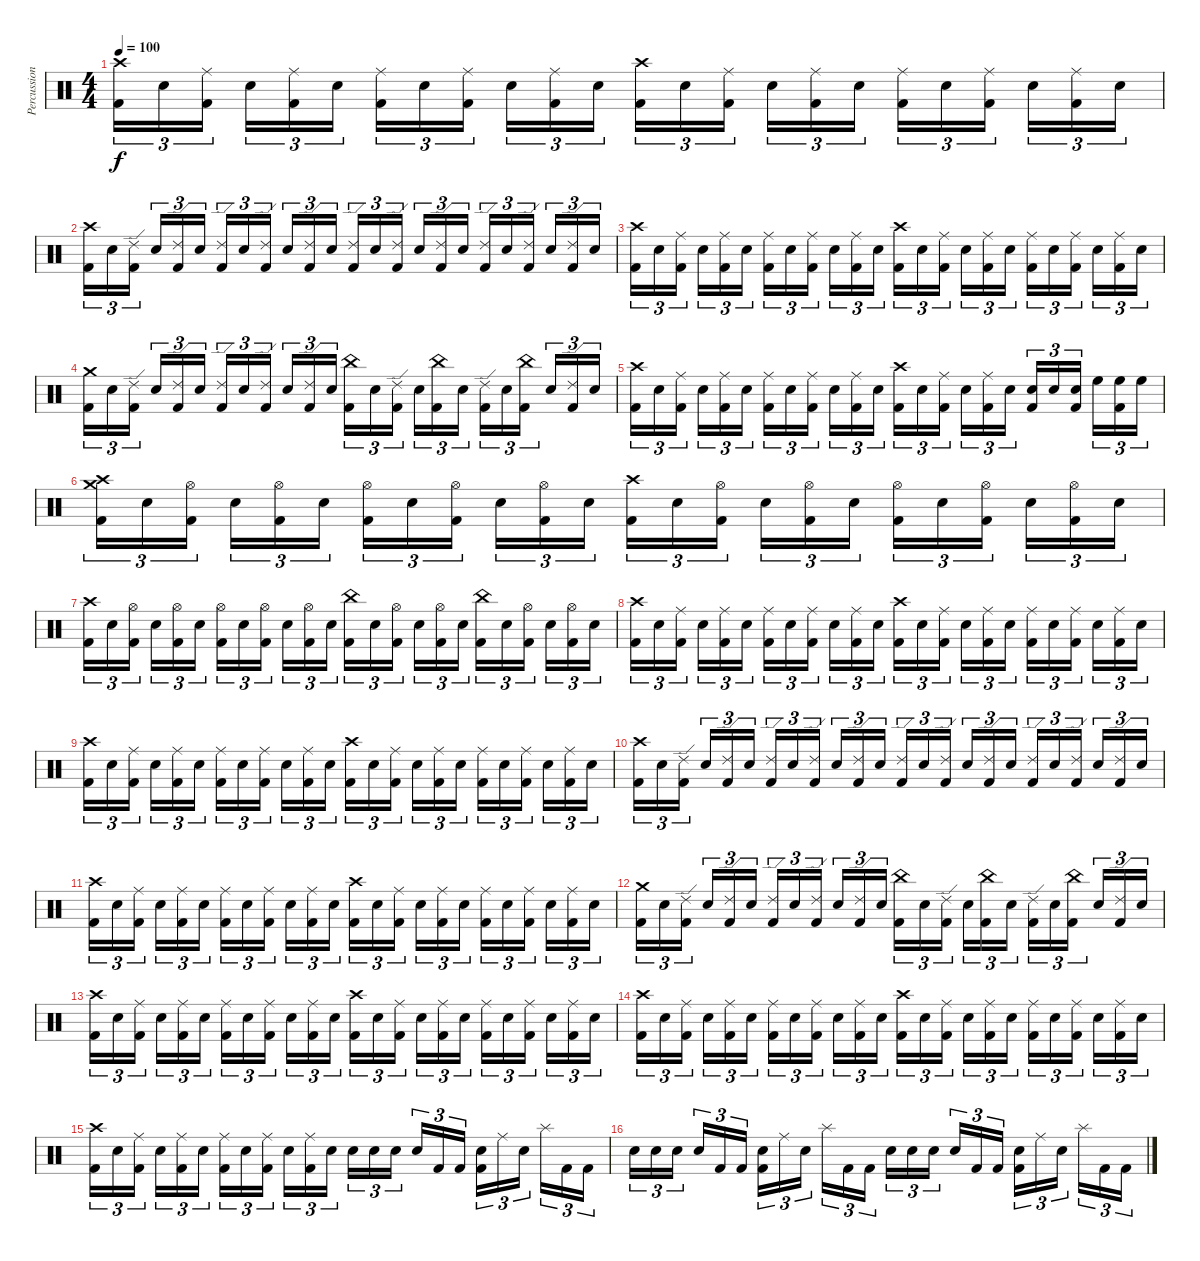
\track ("Percussion" "Percussion") {instrument percussion}
\staff {score}
\articulation defaults
\ts (4 4)
\tempo 100
\clef neutral
\ks c
("Crash high (hit)" "Kick (hit) 2").16{tu (3 2) dy f} "Electric Snare (hit)".16{tu (3 2)} ("Ride (middle)" "Kick (hit) 2").16{tu (3 2) beam splitsecondary} "Electric Snare (hit)".16{tu (3 2)} ("Ride (middle)" "Kick (hit) 2").16{tu (3 2)} "Electric Snare (hit)".16{tu (3 2)} ("Ride (middle)" "Kick (hit) 2").16{tu (3 2)} "Electric Snare (hit)".16{tu (3 2)} ("Ride (middle)" "Kick (hit) 2").16{tu (3 2) beam splitsecondary} "Electric Snare (hit)".16{tu (3 2)} ("Ride (middle)" "Kick (hit) 2").16{tu (3 2)} "Electric Snare (hit)".16{tu (3 2)} ("Crash high (hit)" "Kick (hit) 2").16{tu (3 2)} "Electric Snare (hit)".16{tu (3 2)} ("Ride (middle)" "Kick (hit) 2").16{tu (3 2) beam splitsecondary} "Electric Snare (hit)".16{tu (3 2)} ("Ride (middle)" "Kick (hit) 2").16{tu (3 2)} "Electric Snare (hit)".16{tu (3 2)} ("Ride (middle)" "Kick (hit) 2").16{tu (3 2)} "Electric Snare (hit)".16{tu (3 2)} ("Ride (middle)" "Kick (hit) 2").16{tu (3 2) beam splitsecondary} "Electric Snare (hit)".16{tu (3 2)} ("Ride (middle)" "Kick (hit) 2").16{tu (3 2)} "Electric Snare (hit)".16{tu (3 2)} |
("Crash high (hit)" "Kick (hit) 2").16{tu (3 2)} "Electric Snare (hit)".16{tu (3 2)} ("Ride (edge) 2" "Kick (hit) 2").16{tu (3 2) beam splitsecondary} "Electric Snare (hit)".16{tu (3 2)} ("Ride (edge) 2" "Kick (hit) 2").16{tu (3 2)} "Electric Snare (hit)".16{tu (3 2)} ("Ride (edge) 2" "Kick (hit) 2").16{tu (3 2)} "Electric Snare (hit)".16{tu (3 2)} ("Ride (edge) 2" "Kick (hit) 2").16{tu (3 2) beam splitsecondary} "Electric Snare (hit)".16{tu (3 2)} ("Ride (edge) 2" "Kick (hit) 2").16{tu (3 2)} "Electric Snare (hit)".16{tu (3 2)} ("Ride (edge) 2" "Kick (hit) 2").16{tu (3 2)} "Electric Snare (hit)".16{tu (3 2)} ("Ride (edge) 2" "Kick (hit) 2").16{tu (3 2) beam splitsecondary} "Electric Snare (hit)".16{tu (3 2)} ("Ride (edge) 2" "Kick (hit) 2").16{tu (3 2)} "Electric Snare (hit)".16{tu (3 2)} ("Ride (edge) 2" "Kick (hit) 2").16{tu (3 2)} "Electric Snare (hit)".16{tu (3 2)} ("Ride (edge) 2" "Kick (hit) 2").16{tu (3 2) beam splitsecondary} "Electric Snare (hit)".16{tu (3 2)} ("Ride (edge) 2" "Kick (hit) 2").16{tu (3 2)} "Electric Snare (hit)".16{tu (3 2)} |
("Crash high (hit)" "Kick (hit) 2").16{tu (3 2)} "Electric Snare (hit)".16{tu (3 2)} ("Ride (middle)" "Kick (hit) 2").16{tu (3 2) beam splitsecondary} "Electric Snare (hit)".16{tu (3 2)} ("Ride (middle)" "Kick (hit) 2").16{tu (3 2)} "Electric Snare (hit)".16{tu (3 2)} ("Ride (middle)" "Kick (hit) 2").16{tu (3 2)} "Electric Snare (hit)".16{tu (3 2)} ("Ride (middle)" "Kick (hit) 2").16{tu (3 2) beam splitsecondary} "Electric Snare (hit)".16{tu (3 2)} ("Ride (middle)" "Kick (hit) 2").16{tu (3 2)} "Electric Snare (hit)".16{tu (3 2)} ("Crash high (hit)" "Kick (hit) 2").16{tu (3 2)} "Electric Snare (hit)".16{tu (3 2)} ("Ride (middle)" "Kick (hit) 2").16{tu (3 2) beam splitsecondary} "Electric Snare (hit)".16{tu (3 2)} ("Ride (middle)" "Kick (hit) 2").16{tu (3 2)} "Electric Snare (hit)".16{tu (3 2)} ("Ride (middle)" "Kick (hit) 2").16{tu (3 2)} "Electric Snare (hit)".16{tu (3 2)} ("Ride (middle)" "Kick (hit) 2").16{tu (3 2) beam splitsecondary} "Electric Snare (hit)".16{tu (3 2)} ("Ride (middle)" "Kick (hit) 2").16{tu (3 2)} "Electric Snare (hit)".16{tu (3 2)} |
("Crash medium (hit)" "Kick (hit) 2").16{tu (3 2)} "Electric Snare (hit)".16{tu (3 2)} ("Ride (edge) 2" "Kick (hit) 2").16{tu (3 2) beam splitsecondary} "Electric Snare (hit)".16{tu (3 2)} ("Ride (edge) 2" "Kick (hit) 2").16{tu (3 2)} "Electric Snare (hit)".16{tu (3 2)} ("Ride (edge) 2" "Kick (hit) 2").16{tu (3 2)} "Electric Snare (hit)".16{tu (3 2)} ("Ride (edge) 2" "Kick (hit) 2").16{tu (3 2) beam splitsecondary} "Electric Snare (hit)".16{tu (3 2)} ("Ride (edge) 2" "Kick (hit) 2").16{tu (3 2)} "Electric Snare (hit)".16{tu (3 2)} ("China (hit)" "Kick (hit) 2").16{tu (3 2)} "Electric Snare (hit)".16{tu (3 2)} ("Ride (edge) 2" "Kick (hit) 2").16{tu (3 2) beam splitsecondary} "Electric Snare (hit)".16{tu (3 2)} ("China (hit)" "Kick (hit) 2").16{tu (3 2)} "Electric Snare (hit)".16{tu (3 2)} ("Ride (edge) 2" "Kick (hit) 2").16{tu (3 2)} "Electric Snare (hit)".16{tu (3 2)} ("China (hit)" "Kick (hit) 2").16{tu (3 2) beam splitsecondary} "Electric Snare (hit)".16{tu (3 2)} ("Ride (edge) 2" "Kick (hit) 2").16{tu (3 2)} "Electric Snare (hit)".16{tu (3 2)} |
("Crash high (hit)" "Kick (hit) 2").16{tu (3 2)} "Electric Snare (hit)".16{tu (3 2)} ("Ride (middle)" "Kick (hit) 2").16{tu (3 2) beam splitsecondary} "Electric Snare (hit)".16{tu (3 2)} ("Ride (middle)" "Kick (hit) 2").16{tu (3 2)} "Electric Snare (hit)".16{tu (3 2)} ("Ride (middle)" "Kick (hit) 2").16{tu (3 2)} "Electric Snare (hit)".16{tu (3 2)} ("Ride (middle)" "Kick (hit) 2").16{tu (3 2) beam splitsecondary} "Electric Snare (hit)".16{tu (3 2)} ("Ride (middle)" "Kick (hit) 2").16{tu (3 2)} "Electric Snare (hit)".16{tu (3 2)} ("Crash high (hit)" "Kick (hit) 2").16{tu (3 2)} "Electric Snare (hit)".16{tu (3 2)} ("Ride (middle)" "Kick (hit) 2").16{tu (3 2) beam splitsecondary} "Electric Snare (hit)".16{tu (3 2)} ("Ride (middle)" "Kick (hit) 2").16{tu (3 2)} "Electric Snare (hit)".16{tu (3 2)} ("Electric Snare (hit)" "Kick (hit) 2").16{tu (3 2)} "Electric Snare (hit)".16{tu (3 2)} ("Electric Snare (hit)" "Kick (hit) 2").16{tu (3 2) beam splitsecondary} "High Floor Tom (hit)".16{tu (3 2)} ("High Floor Tom (hit)" "Kick (hit) 2").16{tu (3 2)} "High Floor Tom (hit)".16{tu (3 2)} |
("Crash medium (hit)" "Crash high (hit)" "Kick (hit) 2").16{tu (3 2)} "Electric Snare (hit)".16{tu (3 2)} ("Hi-Hat (open)" "Kick (hit) 2").16{tu (3 2) beam splitsecondary} "Electric Snare (hit)".16{tu (3 2)} ("Hi-Hat (open)" "Kick (hit) 2").16{tu (3 2)} "Electric Snare (hit)".16{tu (3 2)} ("Hi-Hat (open)" "Kick (hit) 2").16{tu (3 2)} "Electric Snare (hit)".16{tu (3 2)} ("Hi-Hat (open)" "Kick (hit) 2").16{tu (3 2) beam splitsecondary} "Electric Snare (hit)".16{tu (3 2)} ("Hi-Hat (open)" "Kick (hit) 2").16{tu (3 2)} "Electric Snare (hit)".16{tu (3 2)} ("Crash high (hit)" "Kick (hit) 2").16{tu (3 2)} "Electric Snare (hit)".16{tu (3 2)} ("Hi-Hat (open)" "Kick (hit) 2").16{tu (3 2) beam splitsecondary} "Electric Snare (hit)".16{tu (3 2)} ("Hi-Hat (open)" "Kick (hit) 2").16{tu (3 2)} "Electric Snare (hit)".16{tu (3 2)} ("Hi-Hat (open)" "Kick (hit) 2").16{tu (3 2)} "Electric Snare (hit)".16{tu (3 2)} ("Hi-Hat (open)" "Kick (hit) 2").16{tu (3 2) beam splitsecondary} "Electric Snare (hit)".16{tu (3 2)} ("Hi-Hat (open)" "Kick (hit) 2").16{tu (3 2)} "Electric Snare (hit)".16{tu (3 2)} |
("Crash high (hit)" "Kick (hit) 2").16{tu (3 2)} "Electric Snare (hit)".16{tu (3 2)} ("Hi-Hat (open)" "Kick (hit) 2").16{tu (3 2) beam splitsecondary} "Electric Snare (hit)".16{tu (3 2)} ("Hi-Hat (open)" "Kick (hit) 2").16{tu (3 2)} "Electric Snare (hit)".16{tu (3 2)} ("Hi-Hat (open)" "Kick (hit) 2").16{tu (3 2)} "Electric Snare (hit)".16{tu (3 2)} ("Hi-Hat (open)" "Kick (hit) 2").16{tu (3 2) beam splitsecondary} "Electric Snare (hit)".16{tu (3 2)} ("Hi-Hat (open)" "Kick (hit) 2").16{tu (3 2)} "Electric Snare (hit)".16{tu (3 2)} ("China (hit)" "Kick (hit) 2").16{tu (3 2)} "Electric Snare (hit)".16{tu (3 2)} ("Hi-Hat (open)" "Kick (hit) 2").16{tu (3 2) beam splitsecondary} "Electric Snare (hit)".16{tu (3 2)} ("Hi-Hat (open)" "Kick (hit) 2").16{tu (3 2)} "Electric Snare (hit)".16{tu (3 2)} ("China (hit)" "Kick (hit) 2").16{tu (3 2)} "Electric Snare (hit)".16{tu (3 2)} ("Hi-Hat (open)" "Kick (hit) 2").16{tu (3 2) beam splitsecondary} "Electric Snare (hit)".16{tu (3 2)} ("Hi-Hat (open)" "Kick (hit) 2").16{tu (3 2)} "Electric Snare (hit)".16{tu (3 2)} |
("Crash high (hit)" "Kick (hit) 2").16{tu (3 2)} "Electric Snare (hit)".16{tu (3 2)} ("Ride (middle)" "Kick (hit) 2").16{tu (3 2) beam splitsecondary} "Electric Snare (hit)".16{tu (3 2)} ("Ride (middle)" "Kick (hit) 2").16{tu (3 2)} "Electric Snare (hit)".16{tu (3 2)} ("Ride (middle)" "Kick (hit) 2").16{tu (3 2)} "Electric Snare (hit)".16{tu (3 2)} ("Ride (middle)" "Kick (hit) 2").16{tu (3 2) beam splitsecondary} "Electric Snare (hit)".16{tu (3 2)} ("Ride (middle)" "Kick (hit) 2").16{tu (3 2)} "Electric Snare (hit)".16{tu (3 2)} ("Crash high (hit)" "Kick (hit) 2").16{tu (3 2)} "Electric Snare (hit)".16{tu (3 2)} ("Ride (middle)" "Kick (hit) 2").16{tu (3 2) beam splitsecondary} "Electric Snare (hit)".16{tu (3 2)} ("Ride (middle)" "Kick (hit) 2").16{tu (3 2)} "Electric Snare (hit)".16{tu (3 2)} ("Ride (middle)" "Kick (hit) 2").16{tu (3 2)} "Electric Snare (hit)".16{tu (3 2)} ("Ride (middle)" "Kick (hit) 2").16{tu (3 2) beam splitsecondary} "Electric Snare (hit)".16{tu (3 2)} ("Ride (middle)" "Kick (hit) 2").16{tu (3 2)} "Electric Snare (hit)".16{tu (3 2)} |
("Crash high (hit)" "Kick (hit) 2").16{tu (3 2)} "Electric Snare (hit)".16{tu (3 2)} ("Ride (middle)" "Kick (hit) 2").16{tu (3 2) beam splitsecondary} "Electric Snare (hit)".16{tu (3 2)} ("Ride (middle)" "Kick (hit) 2").16{tu (3 2)} "Electric Snare (hit)".16{tu (3 2)} ("Ride (middle)" "Kick (hit) 2").16{tu (3 2)} "Electric Snare (hit)".16{tu (3 2)} ("Ride (middle)" "Kick (hit) 2").16{tu (3 2) beam splitsecondary} "Electric Snare (hit)".16{tu (3 2)} ("Ride (middle)" "Kick (hit) 2").16{tu (3 2)} "Electric Snare (hit)".16{tu (3 2)} ("Crash high (hit)" "Kick (hit) 2").16{tu (3 2)} "Electric Snare (hit)".16{tu (3 2)} ("Ride (middle)" "Kick (hit) 2").16{tu (3 2) beam splitsecondary} "Electric Snare (hit)".16{tu (3 2)} ("Ride (middle)" "Kick (hit) 2").16{tu (3 2)} "Electric Snare (hit)".16{tu (3 2)} ("Ride (middle)" "Kick (hit) 2").16{tu (3 2)} "Electric Snare (hit)".16{tu (3 2)} ("Ride (middle)" "Kick (hit) 2").16{tu (3 2) beam splitsecondary} "Electric Snare (hit)".16{tu (3 2)} ("Ride (middle)" "Kick (hit) 2").16{tu (3 2)} "Electric Snare (hit)".16{tu (3 2)} |
("Crash high (hit)" "Kick (hit) 2").16{tu (3 2)} "Electric Snare (hit)".16{tu (3 2)} ("Ride (edge) 2" "Kick (hit) 2").16{tu (3 2) beam splitsecondary} "Electric Snare (hit)".16{tu (3 2)} ("Ride (edge) 2" "Kick (hit) 2").16{tu (3 2)} "Electric Snare (hit)".16{tu (3 2)} ("Ride (edge) 2" "Kick (hit) 2").16{tu (3 2)} "Electric Snare (hit)".16{tu (3 2)} ("Ride (edge) 2" "Kick (hit) 2").16{tu (3 2) beam splitsecondary} "Electric Snare (hit)".16{tu (3 2)} ("Ride (edge) 2" "Kick (hit) 2").16{tu (3 2)} "Electric Snare (hit)".16{tu (3 2)} ("Ride (edge) 2" "Kick (hit) 2").16{tu (3 2)} "Electric Snare (hit)".16{tu (3 2)} ("Ride (edge) 2" "Kick (hit) 2").16{tu (3 2) beam splitsecondary} "Electric Snare (hit)".16{tu (3 2)} ("Ride (edge) 2" "Kick (hit) 2").16{tu (3 2)} "Electric Snare (hit)".16{tu (3 2)} ("Ride (edge) 2" "Kick (hit) 2").16{tu (3 2)} "Electric Snare (hit)".16{tu (3 2)} ("Ride (edge) 2" "Kick (hit) 2").16{tu (3 2) beam splitsecondary} "Electric Snare (hit)".16{tu (3 2)} ("Ride (edge) 2" "Kick (hit) 2").16{tu (3 2)} "Electric Snare (hit)".16{tu (3 2)} |
("Crash high (hit)" "Kick (hit) 2").16{tu (3 2)} "Electric Snare (hit)".16{tu (3 2)} ("Ride (middle)" "Kick (hit) 2").16{tu (3 2) beam splitsecondary} "Electric Snare (hit)".16{tu (3 2)} ("Ride (middle)" "Kick (hit) 2").16{tu (3 2)} "Electric Snare (hit)".16{tu (3 2)} ("Ride (middle)" "Kick (hit) 2").16{tu (3 2)} "Electric Snare (hit)".16{tu (3 2)} ("Ride (middle)" "Kick (hit) 2").16{tu (3 2) beam splitsecondary} "Electric Snare (hit)".16{tu (3 2)} ("Ride (middle)" "Kick (hit) 2").16{tu (3 2)} "Electric Snare (hit)".16{tu (3 2)} ("Crash high (hit)" "Kick (hit) 2").16{tu (3 2)} "Electric Snare (hit)".16{tu (3 2)} ("Ride (middle)" "Kick (hit) 2").16{tu (3 2) beam splitsecondary} "Electric Snare (hit)".16{tu (3 2)} ("Ride (middle)" "Kick (hit) 2").16{tu (3 2)} "Electric Snare (hit)".16{tu (3 2)} ("Ride (middle)" "Kick (hit) 2").16{tu (3 2)} "Electric Snare (hit)".16{tu (3 2)} ("Ride (middle)" "Kick (hit) 2").16{tu (3 2) beam splitsecondary} "Electric Snare (hit)".16{tu (3 2)} ("Ride (middle)" "Kick (hit) 2").16{tu (3 2)} "Electric Snare (hit)".16{tu (3 2)} |
("Crash medium (hit)" "Kick (hit) 2").16{tu (3 2)} "Electric Snare (hit)".16{tu (3 2)} ("Ride (edge) 2" "Kick (hit) 2").16{tu (3 2) beam splitsecondary} "Electric Snare (hit)".16{tu (3 2)} ("Ride (edge) 2" "Kick (hit) 2").16{tu (3 2)} "Electric Snare (hit)".16{tu (3 2)} ("Ride (edge) 2" "Kick (hit) 2").16{tu (3 2)} "Electric Snare (hit)".16{tu (3 2)} ("Ride (edge) 2" "Kick (hit) 2").16{tu (3 2) beam splitsecondary} "Electric Snare (hit)".16{tu (3 2)} ("Ride (edge) 2" "Kick (hit) 2").16{tu (3 2)} "Electric Snare (hit)".16{tu (3 2)} ("China (hit)" "Kick (hit) 2").16{tu (3 2)} "Electric Snare (hit)".16{tu (3 2)} ("Ride (edge) 2" "Kick (hit) 2").16{tu (3 2) beam splitsecondary} "Electric Snare (hit)".16{tu (3 2)} ("China (hit)" "Kick (hit) 2").16{tu (3 2)} "Electric Snare (hit)".16{tu (3 2)} ("Ride (edge) 2" "Kick (hit) 2").16{tu (3 2)} "Electric Snare (hit)".16{tu (3 2)} ("China (hit)" "Kick (hit) 2").16{tu (3 2) beam splitsecondary} "Electric Snare (hit)".16{tu (3 2)} ("Ride (edge) 2" "Kick (hit) 2").16{tu (3 2)} "Electric Snare (hit)".16{tu (3 2)} |
("Crash high (hit)" "Kick (hit) 2").16{tu (3 2)} "Electric Snare (hit)".16{tu (3 2)} ("Ride (middle)" "Kick (hit) 2").16{tu (3 2) beam splitsecondary} "Electric Snare (hit)".16{tu (3 2)} ("Ride (middle)" "Kick (hit) 2").16{tu (3 2)} "Electric Snare (hit)".16{tu (3 2)} ("Ride (middle)" "Kick (hit) 2").16{tu (3 2)} "Electric Snare (hit)".16{tu (3 2)} ("Ride (middle)" "Kick (hit) 2").16{tu (3 2) beam splitsecondary} "Electric Snare (hit)".16{tu (3 2)} ("Ride (middle)" "Kick (hit) 2").16{tu (3 2)} "Electric Snare (hit)".16{tu (3 2)} ("Crash high (hit)" "Kick (hit) 2").16{tu (3 2)} "Electric Snare (hit)".16{tu (3 2)} ("Ride (middle)" "Kick (hit) 2").16{tu (3 2) beam splitsecondary} "Electric Snare (hit)".16{tu (3 2)} ("Ride (middle)" "Kick (hit) 2").16{tu (3 2)} "Electric Snare (hit)".16{tu (3 2)} ("Ride (middle)" "Kick (hit) 2").16{tu (3 2)} "Electric Snare (hit)".16{tu (3 2)} ("Ride (middle)" "Kick (hit) 2").16{tu (3 2) beam splitsecondary} "Electric Snare (hit)".16{tu (3 2)} ("Ride (middle)" "Kick (hit) 2").16{tu (3 2)} "Electric Snare (hit)".16{tu (3 2)} |
("Crash high (hit)" "Kick (hit) 2").16{tu (3 2)} "Electric Snare (hit)".16{tu (3 2)} ("Ride (middle)" "Kick (hit) 2").16{tu (3 2) beam splitsecondary} "Electric Snare (hit)".16{tu (3 2)} ("Ride (middle)" "Kick (hit) 2").16{tu (3 2)} "Electric Snare (hit)".16{tu (3 2)} ("Ride (middle)" "Kick (hit) 2").16{tu (3 2)} "Electric Snare (hit)".16{tu (3 2)} ("Ride (middle)" "Kick (hit) 2").16{tu (3 2) beam splitsecondary} "Electric Snare (hit)".16{tu (3 2)} ("Ride (middle)" "Kick (hit) 2").16{tu (3 2)} "Electric Snare (hit)".16{tu (3 2)} ("Crash high (hit)" "Kick (hit) 2").16{tu (3 2)} "Electric Snare (hit)".16{tu (3 2)} ("Ride (middle)" "Kick (hit) 2").16{tu (3 2) beam splitsecondary} "Electric Snare (hit)".16{tu (3 2)} ("Ride (middle)" "Kick (hit) 2").16{tu (3 2)} "Electric Snare (hit)".16{tu (3 2)} ("Ride (middle)" "Kick (hit) 2").16{tu (3 2)} "Electric Snare (hit)".16{tu (3 2)} ("Ride (middle)" "Kick (hit) 2").16{tu (3 2) beam splitsecondary} "Electric Snare (hit)".16{tu (3 2)} ("Ride (middle)" "Kick (hit) 2").16{tu (3 2)} "Electric Snare (hit)".16{tu (3 2)} |
("Crash high (hit)" "Kick (hit) 2").16{tu (3 2)} "Electric Snare (hit)".16{tu (3 2)} ("Ride (middle)" "Kick (hit) 2").16{tu (3 2) beam splitsecondary} "Electric Snare (hit)".16{tu (3 2)} ("Ride (middle)" "Kick (hit) 2").16{tu (3 2)} "Electric Snare (hit)".16{tu (3 2)} ("Ride (middle)" "Kick (hit) 2").16{tu (3 2)} "Electric Snare (hit)".16{tu (3 2)} ("Ride (middle)" "Kick (hit) 2").16{tu (3 2) beam splitsecondary} "Electric Snare (hit)".16{tu (3 2)} ("Ride (middle)" "Kick (hit) 2").16{tu (3 2)} "Electric Snare (hit)".16{tu (3 2)} "Electric Snare (hit)".16{tu (3 2)} "Electric Snare (hit)".16{tu (3 2)} "Electric Snare (hit)".16{tu (3 2) beam splitsecondary} "Electric Snare (hit)".16{tu (3 2)} "Kick (hit) 2".16{tu (3 2)} "Kick (hit) 2".16{tu (3 2)} ("Electric Snare (hit)" "Kick (hit) 2").16{tu (3 2)} "Ride (middle)".16{tu (3 2)} "Electric Snare (hit)".16{tu (3 2) beam splitsecondary} "Splash (hit)".16{tu (3 2)} "Kick (hit) 2".16{tu (3 2)} "Kick (hit) 2".16{tu (3 2)} |
"Electric Snare (hit)".16{tu (3 2)} "Electric Snare (hit)".16{tu (3 2)} "Electric Snare (hit)".16{tu (3 2) beam splitsecondary} "Electric Snare (hit)".16{tu (3 2)} "Kick (hit) 2".16{tu (3 2)} "Kick (hit) 2".16{tu (3 2)} ("Electric Snare (hit)" "Kick (hit) 2").16{tu (3 2)} "Ride (middle)".16{tu (3 2)} "Electric Snare (hit)".16{tu (3 2) beam splitsecondary} "Splash (hit)".16{tu (3 2)} "Kick (hit) 2".16{tu (3 2)} "Kick (hit) 2".16{tu (3 2)} "Electric Snare (hit)".16{tu (3 2)} "Electric Snare (hit)".16{tu (3 2)} "Electric Snare (hit)".16{tu (3 2) beam splitsecondary} "Electric Snare (hit)".16{tu (3 2)} "Kick (hit) 2".16{tu (3 2)} "Kick (hit) 2".16{tu (3 2)} ("Electric Snare (hit)" "Kick (hit) 2").16{tu (3 2)} "Ride (middle)".16{tu (3 2)} "Electric Snare (hit)".16{tu (3 2) beam splitsecondary} "Splash (hit)".16{tu (3 2)} "Kick (hit) 2".16{tu (3 2)} "Kick (hit) 2".16{tu (3 2)}
